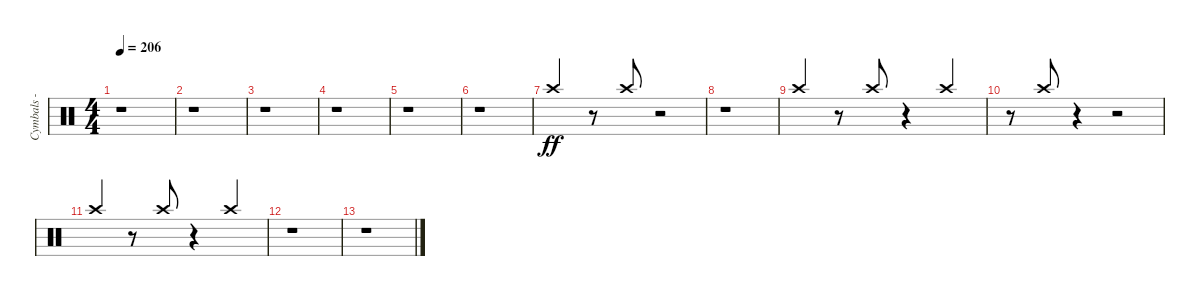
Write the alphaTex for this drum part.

\track ("Cymbals - crash" "Cymbals - ") {instrument percussion}
\staff {score}
\articulation defaults
\ts (4 4)
\tempo 206
\clef neutral
\ks c
r.1{dy ff} |
r.1 |
r.1 |
r.1 |
r.1 |
r.1 |
"Crash high (hit)".4{beam Up} r.8 "Crash high (hit)".8{beam Up} r.2 |
r.1 |
"Crash high (hit)".4{beam Up} r.8 "Crash high (hit)".8{beam Up} r.4 "Crash high (hit)".4{beam Up} |
r.8 "Crash high (hit)".8{beam Up} r.4 r.2 |
"Crash high (hit)".4{beam Up} r.8 "Crash high (hit)".8{beam Up} r.4 "Crash high (hit)".4{beam Up} |
r.1{volume 2} |
r.1
